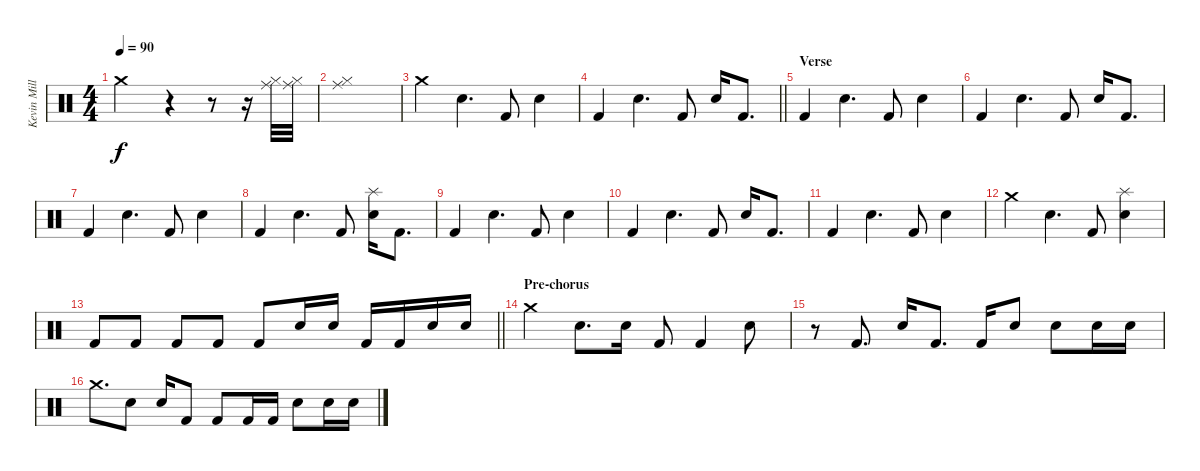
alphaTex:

\track ("Kevin Miller (Drums)" "Kevin Mill") {instrument percussion}
\staff {score}
\articulation defaults
\ts (4 4)
\tempo 90
\clef neutral
\ks c "Crash medium (hit)".2{dy f}
r.4 r.8 r.16 ("Ride (middle)" "Hi-Hat (closed)").32 ("Ride (middle)" "Hi-Hat (closed)").32 |
("Ride (middle)" "Hi-Hat (closed)").1 |
"Crash medium (hit)".4 "Electric Snare (hit)".4{d} "Kick (hit) 2".8 "Electric Snare (hit)".4 |
\barLineRight lightlight "Kick (hit) 2".4 "Electric Snare (hit)".4{d} "Kick (hit) 2".8 "Electric Snare (hit)".16 "Kick (hit) 2".8{d}
|
\section ("" "Verse")
"Kick (hit) 2".4 "Electric Snare (hit)".4{d} "Kick (hit) 2".8 "Electric Snare (hit)".4 |
"Kick (hit) 2".4 "Electric Snare (hit)".4{d} "Kick (hit) 2".8 "Electric Snare (hit)".16 "Kick (hit) 2".8{d} |
"Kick (hit) 2".4 "Electric Snare (hit)".4{d} "Kick (hit) 2".8 "Electric Snare (hit)".4 |
"Kick (hit) 2".4 "Electric Snare (hit)".4{d} "Kick (hit) 2".8 ("Electric Snare (hit)" "Splash (hit)").16 "Kick (hit) 2".8{d} |
"Kick (hit) 2".4 "Electric Snare (hit)".4{d} "Kick (hit) 2".8 "Electric Snare (hit)".4 |
"Kick (hit) 2".4 "Electric Snare (hit)".4{d} "Kick (hit) 2".8 "Electric Snare (hit)".16 "Kick (hit) 2".8{d} |
"Kick (hit) 2".4 "Electric Snare (hit)".4{d} "Kick (hit) 2".8 "Electric Snare (hit)".4 |
"Crash medium (hit)".4 "Electric Snare (hit)".4{d} "Kick (hit) 2".8 ("Electric Snare (hit)" "Splash (hit)").4 |
\barLineRight lightlight "Kick (hit) 2".8{volume 0} "Kick (hit) 2".8{volume 12} "Kick (hit) 2".8 "Kick (hit) 2".8 "Kick (hit) 2".8 "Electric Snare (hit)".16 "Electric Snare (hit)".16 "Kick (hit) 2".16 "Kick (hit) 2".16 "Electric Snare (hit)".16 "Electric Snare (hit)".16
|
\section ("" "Pre-chorus")
"Crash medium (hit)".4 "Electric Snare (hit)".8{d} "Electric Snare (hit)".16 "Kick (hit) 2".8 "Kick (hit) 2".4 "Electric Snare (hit)".8 |
r.8 "Kick (hit) 2".8{d} "Electric Snare (hit)".16 "Kick (hit) 2".8{d} "Kick (hit) 2".16 "Electric Snare (hit)".8 "Electric Snare (hit)".8 "Electric Snare (hit)".16 "Electric Snare (hit)".16 |
"Crash medium (hit)".8{d} "Electric Snare (hit)".8 "Electric Snare (hit)".16 "Kick (hit) 2".8 "Kick (hit) 2".8 "Kick (hit) 2".16 "Kick (hit) 2".16 "Electric Snare (hit)".8 "Electric Snare (hit)".16 "Electric Snare (hit)".16
